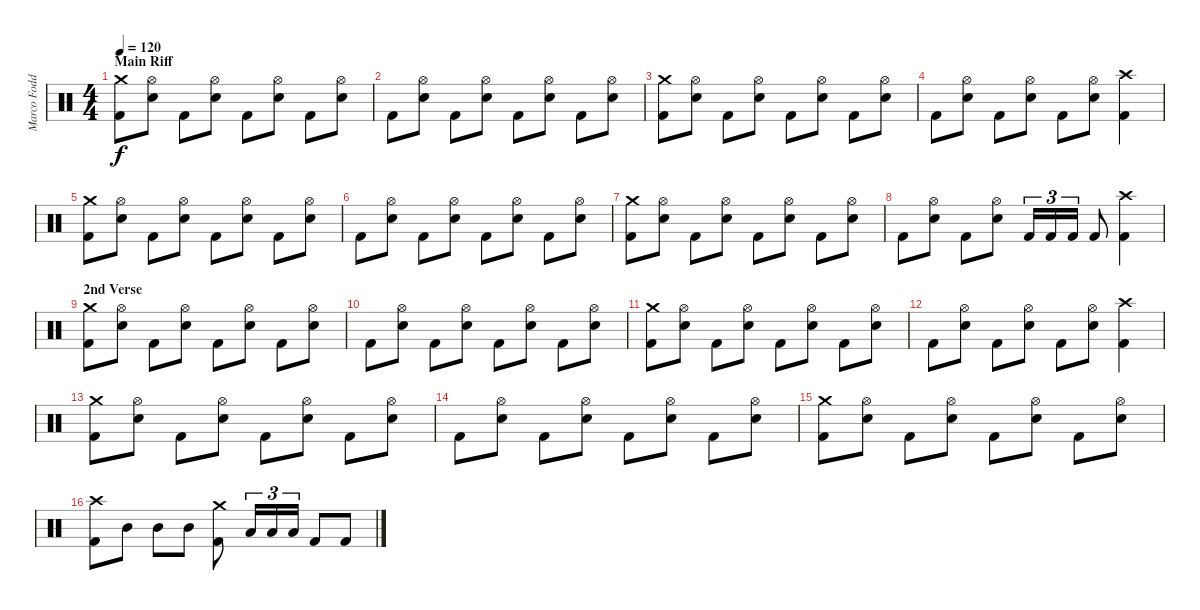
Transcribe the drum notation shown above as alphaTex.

\track ("Marco Foddis " "Marco Fodd") {instrument percussion}
\staff {score}
\articulation defaults
\ts (4 4)
\section ("" "Main Riff")
\tempo 120
\clef neutral
\ks c
("Crash medium (hit)" "Kick (hit) 2").8{dy f} ("Hi-Hat (open)" "Electric Snare (hit)").8 "Kick (hit) 2".8 ("Hi-Hat (open)" "Electric Snare (hit)").8 "Kick (hit) 2".8 ("Hi-Hat (open)" "Electric Snare (hit)").8 "Kick (hit) 2".8 ("Hi-Hat (open)" "Electric Snare (hit)").8 |
"Kick (hit) 2".8 ("Hi-Hat (open)" "Electric Snare (hit)").8 "Kick (hit) 2".8 ("Hi-Hat (open)" "Electric Snare (hit)").8 "Kick (hit) 2".8 ("Hi-Hat (open)" "Electric Snare (hit)").8 "Kick (hit) 2".8 ("Hi-Hat (open)" "Electric Snare (hit)").8 |
("Crash medium (hit)" "Kick (hit) 2").8 ("Hi-Hat (open)" "Electric Snare (hit)").8 "Kick (hit) 2".8 ("Hi-Hat (open)" "Electric Snare (hit)").8 "Kick (hit) 2".8 ("Hi-Hat (open)" "Electric Snare (hit)").8 "Kick (hit) 2".8 ("Hi-Hat (open)" "Electric Snare (hit)").8 |
"Kick (hit) 2".8 ("Hi-Hat (open)" "Electric Snare (hit)").8 "Kick (hit) 2".8 ("Hi-Hat (open)" "Electric Snare (hit)").8 "Kick (hit) 2".8 ("Hi-Hat (open)" "Electric Snare (hit)").8 ("Crash high (hit)" "Kick (hit) 2").4 |
("Crash medium (hit)" "Kick (hit) 2").8 ("Hi-Hat (open)" "Electric Snare (hit)").8 "Kick (hit) 2".8 ("Hi-Hat (open)" "Electric Snare (hit)").8 "Kick (hit) 2".8 ("Hi-Hat (open)" "Electric Snare (hit)").8 "Kick (hit) 2".8 ("Hi-Hat (open)" "Electric Snare (hit)").8 |
"Kick (hit) 2".8 ("Hi-Hat (open)" "Electric Snare (hit)").8 "Kick (hit) 2".8 ("Hi-Hat (open)" "Electric Snare (hit)").8 "Kick (hit) 2".8 ("Hi-Hat (open)" "Electric Snare (hit)").8 "Kick (hit) 2".8 ("Hi-Hat (open)" "Electric Snare (hit)").8 |
("Crash medium (hit)" "Kick (hit) 2").8 ("Hi-Hat (open)" "Electric Snare (hit)").8 "Kick (hit) 2".8 ("Hi-Hat (open)" "Electric Snare (hit)").8 "Kick (hit) 2".8 ("Hi-Hat (open)" "Electric Snare (hit)").8 "Kick (hit) 2".8 ("Hi-Hat (open)" "Electric Snare (hit)").8 |
"Kick (hit) 2".8 ("Hi-Hat (open)" "Electric Snare (hit)").8 "Kick (hit) 2".8 ("Hi-Hat (open)" "Electric Snare (hit)").8 "Kick (hit) 2".16{tu (3 2)} "Kick (hit) 2".16{tu (3 2)} "Kick (hit) 2".16{tu (3 2)} "Kick (hit) 2".8 ("Crash high (hit)" "Kick (hit) 2").4 |
\section ("" "2nd Verse")
("Crash medium (hit)" "Kick (hit) 2").8 ("Hi-Hat (open)" "Electric Snare (hit)").8 "Kick (hit) 2".8 ("Hi-Hat (open)" "Electric Snare (hit)").8 "Kick (hit) 2".8 ("Hi-Hat (open)" "Electric Snare (hit)").8 "Kick (hit) 2".8 ("Hi-Hat (open)" "Electric Snare (hit)").8 |
"Kick (hit) 2".8 ("Hi-Hat (open)" "Electric Snare (hit)").8 "Kick (hit) 2".8 ("Hi-Hat (open)" "Electric Snare (hit)").8 "Kick (hit) 2".8 ("Hi-Hat (open)" "Electric Snare (hit)").8 "Kick (hit) 2".8 ("Hi-Hat (open)" "Electric Snare (hit)").8 |
("Crash medium (hit)" "Kick (hit) 2").8 ("Hi-Hat (open)" "Electric Snare (hit)").8 "Kick (hit) 2".8 ("Hi-Hat (open)" "Electric Snare (hit)").8 "Kick (hit) 2".8 ("Hi-Hat (open)" "Electric Snare (hit)").8 "Kick (hit) 2".8 ("Hi-Hat (open)" "Electric Snare (hit)").8 |
"Kick (hit) 2".8 ("Hi-Hat (open)" "Electric Snare (hit)").8 "Kick (hit) 2".8 ("Hi-Hat (open)" "Electric Snare (hit)").8 "Kick (hit) 2".8 ("Hi-Hat (open)" "Electric Snare (hit)").8 ("Crash high (hit)" "Kick (hit) 2").4 |
("Crash medium (hit)" "Kick (hit) 2").8 ("Hi-Hat (open)" "Electric Snare (hit)").8 "Kick (hit) 2".8 ("Hi-Hat (open)" "Electric Snare (hit)").8 "Kick (hit) 2".8 ("Hi-Hat (open)" "Electric Snare (hit)").8 "Kick (hit) 2".8 ("Hi-Hat (open)" "Electric Snare (hit)").8 |
"Kick (hit) 2".8 ("Hi-Hat (open)" "Electric Snare (hit)").8 "Kick (hit) 2".8 ("Hi-Hat (open)" "Electric Snare (hit)").8 "Kick (hit) 2".8 ("Hi-Hat (open)" "Electric Snare (hit)").8 "Kick (hit) 2".8 ("Hi-Hat (open)" "Electric Snare (hit)").8 |
("Crash medium (hit)" "Kick (hit) 2").8 ("Hi-Hat (open)" "Electric Snare (hit)").8 "Kick (hit) 2".8 ("Hi-Hat (open)" "Electric Snare (hit)").8 "Kick (hit) 2".8 ("Hi-Hat (open)" "Electric Snare (hit)").8 "Kick (hit) 2".8 ("Hi-Hat (open)" "Electric Snare (hit)").8 |
("Crash high (hit)" "Kick (hit) 2").8 "Mid Tom (hit)".8 "Mid Tom (hit)".8 "Mid Tom (hit)".8 ("Crash medium (hit)" "Kick (hit) 2").8 "Low Tom (hit)".16{tu (3 2)} "Low Tom (hit)".16{tu (3 2)} "Low Tom (hit)".16{tu (3 2)} "Kick (hit) 2".8 "Kick (hit) 2".8
